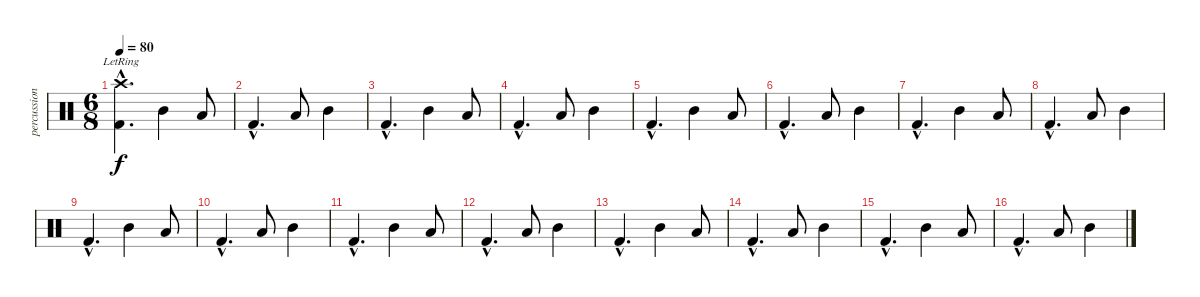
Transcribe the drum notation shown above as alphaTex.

\track ("percussions" "percussion") {instrument percussion}
\staff {score}
\articulation defaults
\ts (6 8)
\tempo 80
\clef neutral
\ks c
("Kick (hit) 2"{hac lr} "Crash high (hit)"{hac}).4{d dy f} "Mid Tom (hit)".4 "Low Tom (hit)".8 |
"Kick (hit) 2"{hac}.4{d} "Low Tom (hit)".8 "Mid Tom (hit)".4 |
"Kick (hit) 2"{hac}.4{d} "Mid Tom (hit)".4 "Low Tom (hit)".8 |
"Kick (hit) 2"{hac}.4{d} "Low Tom (hit)".8 "Mid Tom (hit)".4 |
"Kick (hit) 2"{hac}.4{d} "Mid Tom (hit)".4 "Low Tom (hit)".8 |
"Kick (hit) 2"{hac}.4{d} "Low Tom (hit)".8 "Mid Tom (hit)".4 |
"Kick (hit) 2"{hac}.4{d} "Mid Tom (hit)".4 "Low Tom (hit)".8 |
"Kick (hit) 2"{hac}.4{d} "Low Tom (hit)".8 "Mid Tom (hit)".4 |
"Kick (hit) 2"{hac}.4{d} "Mid Tom (hit)".4 "Low Tom (hit)".8 |
"Kick (hit) 2"{hac}.4{d} "Low Tom (hit)".8 "Mid Tom (hit)".4 |
"Kick (hit) 2"{hac}.4{d} "Mid Tom (hit)".4 "Low Tom (hit)".8 |
"Kick (hit) 2"{hac}.4{d} "Low Tom (hit)".8 "Mid Tom (hit)".4 |
"Kick (hit) 2"{hac}.4{d} "Mid Tom (hit)".4 "Low Tom (hit)".8 |
"Kick (hit) 2"{hac}.4{d} "Low Tom (hit)".8 "Mid Tom (hit)".4 |
"Kick (hit) 2"{hac}.4{d} "Mid Tom (hit)".4 "Low Tom (hit)".8 |
"Kick (hit) 2"{hac}.4{d} "Low Tom (hit)".8 "Mid Tom (hit)".4
